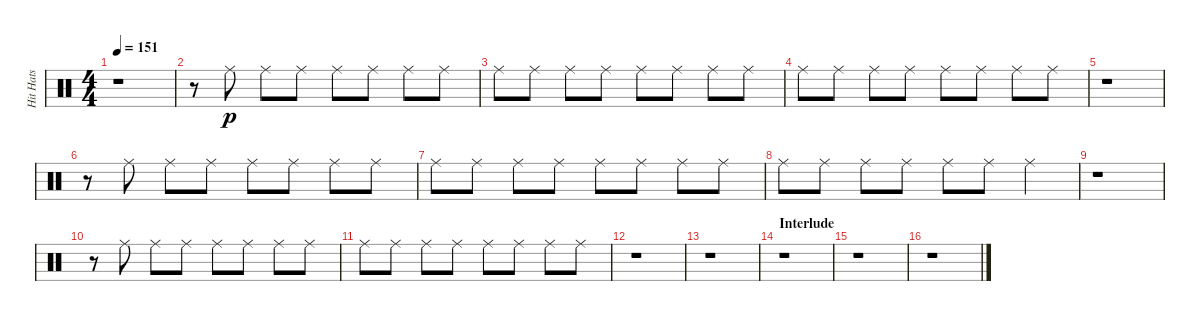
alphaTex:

\track ("Hit Hats" "Hit Hats") {instrument percussion}
\staff {score}
\articulation defaults
\ts (4 4)
\tempo 151
\clef neutral
\ks c
r.1{dy p} |
r.8 "Ride (middle)".8 "Ride (middle)".8 "Ride (middle)".8 "Ride (middle)".8 "Ride (middle)".8 "Ride (middle)".8 "Ride (middle)".8 |
"Ride (middle)".8 "Ride (middle)".8 "Ride (middle)".8 "Ride (middle)".8 "Ride (middle)".8 "Ride (middle)".8 "Ride (middle)".8 "Ride (middle)".8 |
"Ride (middle)".8 "Ride (middle)".8 "Ride (middle)".8 "Ride (middle)".8 "Ride (middle)".8 "Ride (middle)".8 "Ride (middle)".8 "Ride (middle)".8 |
r.1 |
r.8 "Ride (middle)".8 "Ride (middle)".8 "Ride (middle)".8 "Ride (middle)".8 "Ride (middle)".8 "Ride (middle)".8 "Ride (middle)".8 |
"Ride (middle)".8 "Ride (middle)".8 "Ride (middle)".8 "Ride (middle)".8 "Ride (middle)".8 "Ride (middle)".8 "Ride (middle)".8 "Ride (middle)".8 |
"Ride (middle)".8 "Ride (middle)".8 "Ride (middle)".8 "Ride (middle)".8 "Ride (middle)".8 "Ride (middle)".8 "Ride (middle)".4 |
r.1 |
r.8 "Ride (middle)".8 "Ride (middle)".8 "Ride (middle)".8 "Ride (middle)".8 "Ride (middle)".8 "Ride (middle)".8 "Ride (middle)".8 |
"Ride (middle)".8 "Ride (middle)".8 "Ride (middle)".8 "Ride (middle)".8 "Ride (middle)".8 "Ride (middle)".8 "Ride (middle)".8 "Ride (middle)".8 |
r.1 |
r.1 |
\section ("" "Interlude")
r.1 |
r.1 |
r.1
